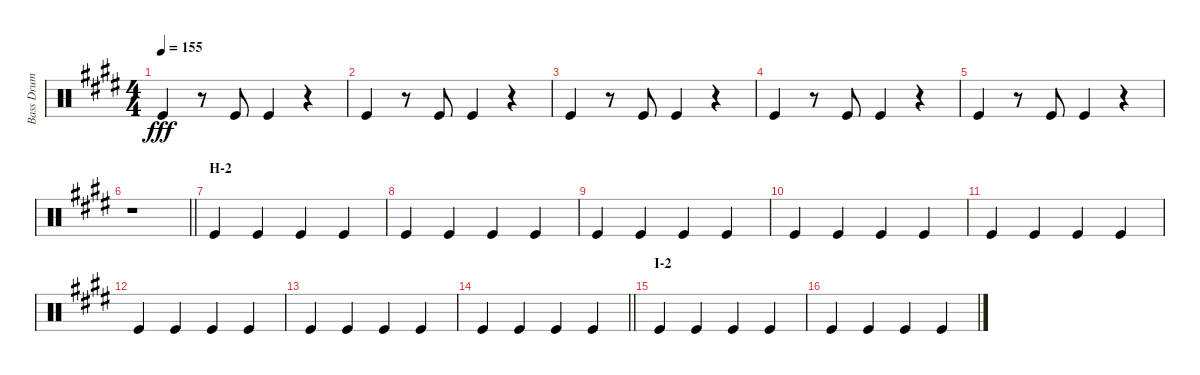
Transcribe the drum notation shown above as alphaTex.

\track ("Bass Drum" "Bass Drum") {instrument percussion}
\staff {score}
\articulation defaults
\ts (4 4)
\tempo 155
\clef neutral
\ks e "Kick (hit)".4{dy fff}
r.8 "Kick (hit)".8 "Kick (hit)".4 r.4 |
"Kick (hit)".4 r.8 "Kick (hit)".8 "Kick (hit)".4 r.4 |
"Kick (hit)".4 r.8 "Kick (hit)".8 "Kick (hit)".4 r.4 |
"Kick (hit)".4 r.8 "Kick (hit)".8 "Kick (hit)".4 r.4 |
"Kick (hit)".4 r.8 "Kick (hit)".8 "Kick (hit)".4 r.4 |
\barLineRight lightlight
r.1 |
\section ("" "H-2")
"Kick (hit)".4 "Kick (hit)".4 "Kick (hit)".4 "Kick (hit)".4 |
"Kick (hit)".4 "Kick (hit)".4 "Kick (hit)".4 "Kick (hit)".4 |
"Kick (hit)".4 "Kick (hit)".4 "Kick (hit)".4 "Kick (hit)".4 |
"Kick (hit)".4 "Kick (hit)".4 "Kick (hit)".4 "Kick (hit)".4 |
"Kick (hit)".4 "Kick (hit)".4 "Kick (hit)".4 "Kick (hit)".4 |
"Kick (hit)".4 "Kick (hit)".4 "Kick (hit)".4 "Kick (hit)".4 |
"Kick (hit)".4 "Kick (hit)".4 "Kick (hit)".4 "Kick (hit)".4 |
\barLineRight lightlight "Kick (hit)".4 "Kick (hit)".4 "Kick (hit)".4 "Kick (hit)".4
|
\section ("" "I-2")
"Kick (hit)".4 "Kick (hit)".4 "Kick (hit)".4 "Kick (hit)".4 |
"Kick (hit)".4 "Kick (hit)".4 "Kick (hit)".4 "Kick (hit)".4
